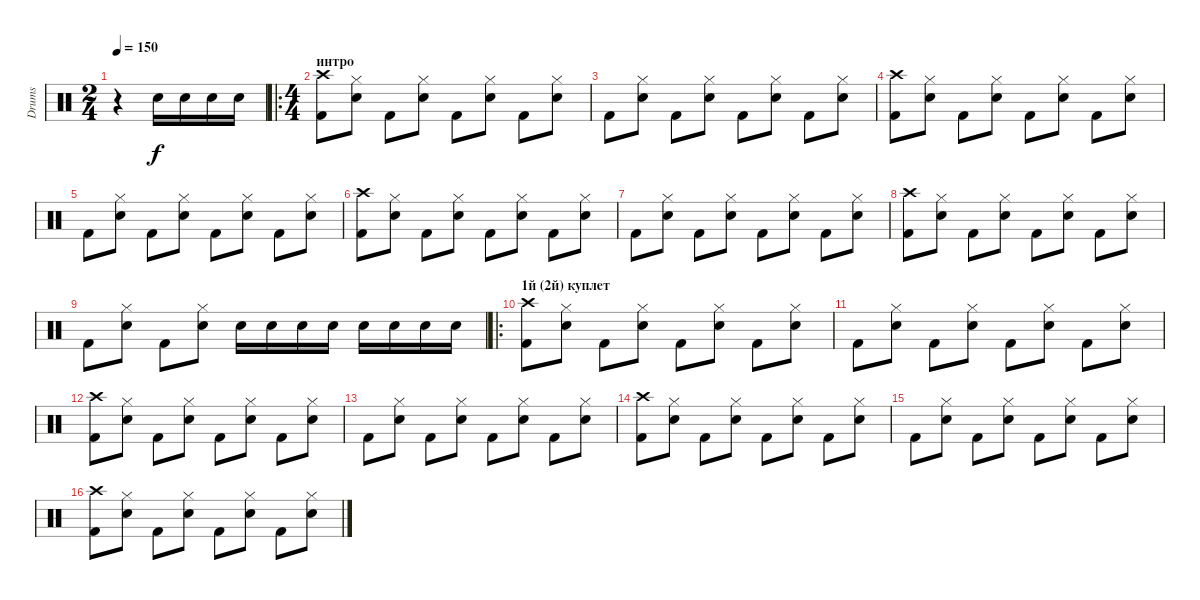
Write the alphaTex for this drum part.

\track ("Drums" "Drums") {instrument percussion}
\staff {score}
\articulation defaults
\ts (2 4)
\tempo 150
\clef neutral
\ks c
r.4{dy f} "Electric Snare (hit)".16 "Electric Snare (hit)".16 "Snare (hit) 2".16 "Snare (hit) 2".16 |
\ro
\ts (4 4)
\section ("" "интро")
("Crash high (hit)" "Kick (hit) 2").8 ("Hi-Hat (closed)" "Electric Snare (hit)").8 "Kick (hit) 2".8 ("Hi-Hat (closed)" "Electric Snare (hit)").8 "Kick (hit) 2".8 ("Hi-Hat (closed)" "Electric Snare (hit)").8 "Kick (hit) 2".8 ("Hi-Hat (closed)" "Electric Snare (hit)").8 |
"Kick (hit) 2".8 ("Hi-Hat (closed)" "Electric Snare (hit)").8 "Kick (hit) 2".8 ("Hi-Hat (closed)" "Electric Snare (hit)").8 "Kick (hit) 2".8 ("Hi-Hat (closed)" "Electric Snare (hit)").8 "Kick (hit) 2".8 ("Hi-Hat (closed)" "Electric Snare (hit)").8 |
("Crash high (hit)" "Kick (hit) 2").8 ("Hi-Hat (closed)" "Electric Snare (hit)").8 "Kick (hit) 2".8 ("Hi-Hat (closed)" "Electric Snare (hit)").8 "Kick (hit) 2".8 ("Hi-Hat (closed)" "Electric Snare (hit)").8 "Kick (hit) 2".8 ("Hi-Hat (closed)" "Electric Snare (hit)").8 |
"Kick (hit) 2".8 ("Hi-Hat (closed)" "Electric Snare (hit)").8 "Kick (hit) 2".8 ("Hi-Hat (closed)" "Electric Snare (hit)").8 "Kick (hit) 2".8 ("Hi-Hat (closed)" "Electric Snare (hit)").8 "Kick (hit) 2".8 ("Hi-Hat (closed)" "Electric Snare (hit)").8 |
("Crash high (hit)" "Kick (hit) 2").8 ("Hi-Hat (closed)" "Electric Snare (hit)").8 "Kick (hit) 2".8 ("Hi-Hat (closed)" "Electric Snare (hit)").8 "Kick (hit) 2".8 ("Hi-Hat (closed)" "Electric Snare (hit)").8 "Kick (hit) 2".8 ("Hi-Hat (closed)" "Electric Snare (hit)").8 |
"Kick (hit) 2".8 ("Hi-Hat (closed)" "Electric Snare (hit)").8 "Kick (hit) 2".8 ("Hi-Hat (closed)" "Electric Snare (hit)").8 "Kick (hit) 2".8 ("Hi-Hat (closed)" "Electric Snare (hit)").8 "Kick (hit) 2".8 ("Hi-Hat (closed)" "Electric Snare (hit)").8 |
("Crash high (hit)" "Kick (hit) 2").8 ("Hi-Hat (closed)" "Electric Snare (hit)").8 "Kick (hit) 2".8 ("Hi-Hat (closed)" "Electric Snare (hit)").8 "Kick (hit) 2".8 ("Hi-Hat (closed)" "Electric Snare (hit)").8 "Kick (hit) 2".8 ("Hi-Hat (closed)" "Electric Snare (hit)").8 |
"Kick (hit) 2".8 ("Hi-Hat (closed)" "Electric Snare (hit)").8 "Kick (hit) 2".8 ("Hi-Hat (closed)" "Electric Snare (hit)").8 "Snare (hit) 2".16 "Snare (hit) 2".16 "Snare (hit) 2".16 "Snare (hit) 2".16 "Snare (hit) 2".16 "Snare (hit) 2".16 "Snare (hit) 2".16 "Snare (hit) 2".16 |
\ro
\section ("" "1й (2й) куплет")
("Crash high (hit)" "Kick (hit) 2").8 ("Hi-Hat (closed)" "Electric Snare (hit)").8 "Kick (hit) 2".8 ("Hi-Hat (closed)" "Electric Snare (hit)").8 "Kick (hit) 2".8 ("Hi-Hat (closed)" "Electric Snare (hit)").8 "Kick (hit) 2".8 ("Hi-Hat (closed)" "Electric Snare (hit)").8 |
"Kick (hit) 2".8 ("Hi-Hat (closed)" "Electric Snare (hit)").8 "Kick (hit) 2".8 ("Hi-Hat (closed)" "Electric Snare (hit)").8 "Kick (hit) 2".8 ("Hi-Hat (closed)" "Electric Snare (hit)").8 "Kick (hit) 2".8 ("Hi-Hat (closed)" "Electric Snare (hit)").8 |
("Crash high (hit)" "Kick (hit) 2").8 ("Hi-Hat (closed)" "Electric Snare (hit)").8 "Kick (hit) 2".8 ("Hi-Hat (closed)" "Electric Snare (hit)").8 "Kick (hit) 2".8 ("Hi-Hat (closed)" "Electric Snare (hit)").8 "Kick (hit) 2".8 ("Hi-Hat (closed)" "Electric Snare (hit)").8 |
"Kick (hit) 2".8 ("Hi-Hat (closed)" "Electric Snare (hit)").8 "Kick (hit) 2".8 ("Hi-Hat (closed)" "Electric Snare (hit)").8 "Kick (hit) 2".8 ("Hi-Hat (closed)" "Electric Snare (hit)").8 "Kick (hit) 2".8 ("Hi-Hat (closed)" "Electric Snare (hit)").8 |
("Crash high (hit)" "Kick (hit) 2").8 ("Hi-Hat (closed)" "Electric Snare (hit)").8 "Kick (hit) 2".8 ("Hi-Hat (closed)" "Electric Snare (hit)").8 "Kick (hit) 2".8 ("Hi-Hat (closed)" "Electric Snare (hit)").8 "Kick (hit) 2".8 ("Hi-Hat (closed)" "Electric Snare (hit)").8 |
"Kick (hit) 2".8 ("Hi-Hat (closed)" "Electric Snare (hit)").8 "Kick (hit) 2".8 ("Hi-Hat (closed)" "Electric Snare (hit)").8 "Kick (hit) 2".8 ("Hi-Hat (closed)" "Electric Snare (hit)").8 "Kick (hit) 2".8 ("Hi-Hat (closed)" "Electric Snare (hit)").8 |
("Crash high (hit)" "Kick (hit) 2").8 ("Hi-Hat (closed)" "Electric Snare (hit)").8 "Kick (hit) 2".8 ("Hi-Hat (closed)" "Electric Snare (hit)").8 "Kick (hit) 2".8 ("Hi-Hat (closed)" "Electric Snare (hit)").8 "Kick (hit) 2".8 ("Hi-Hat (closed)" "Electric Snare (hit)").8
